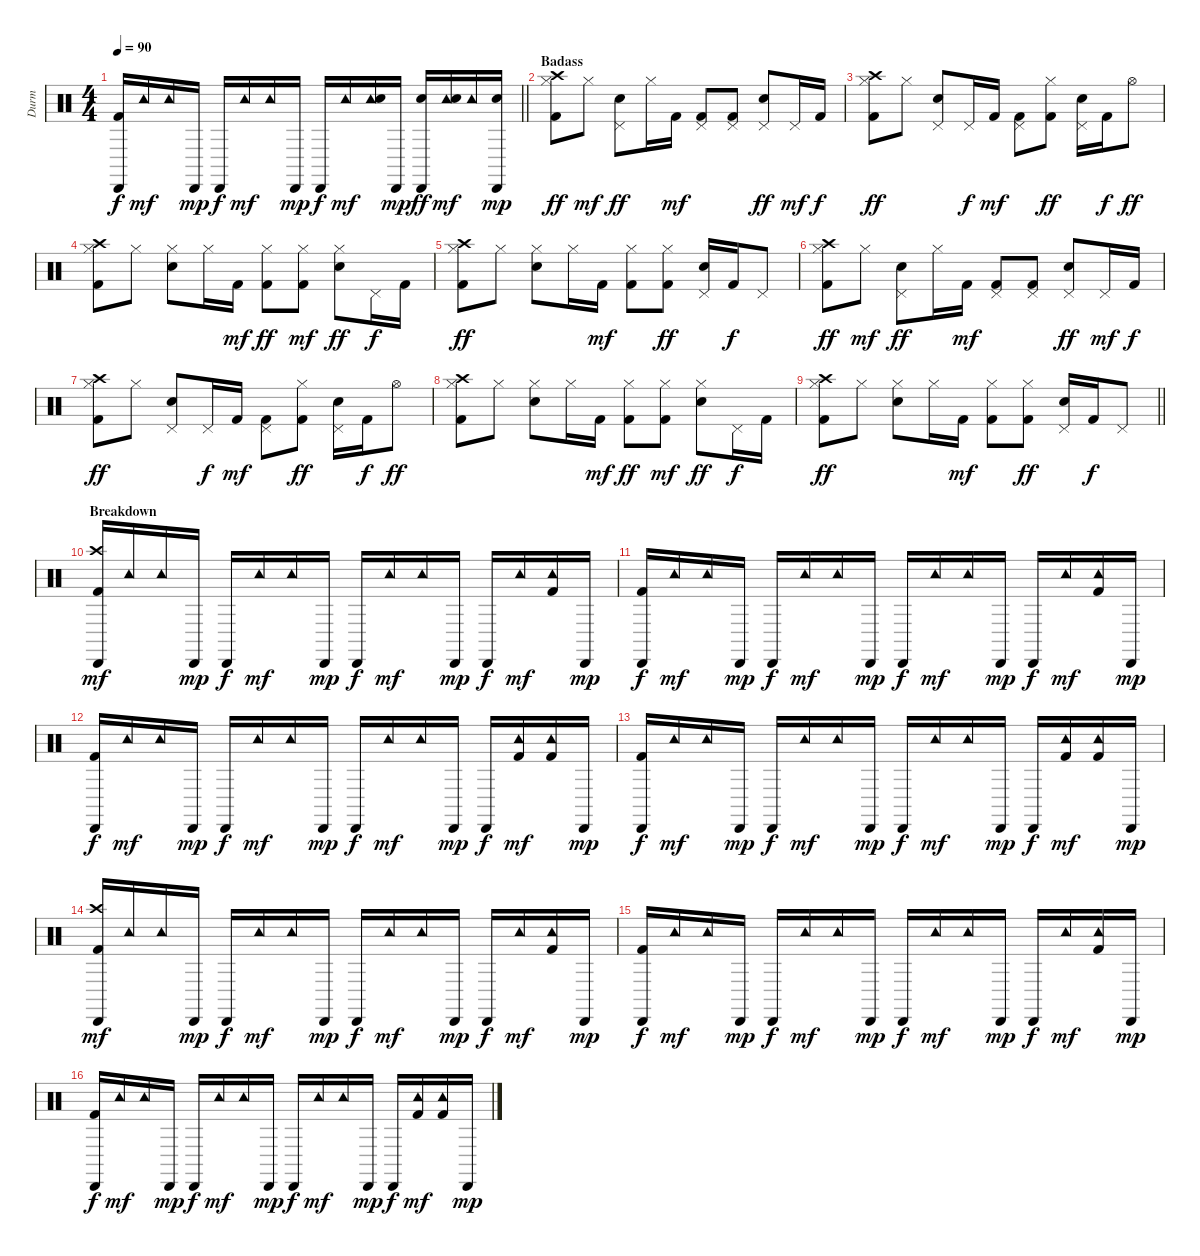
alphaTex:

\track ("Durm" "Durm") {instrument percussion}
\staff {score}
\articulation defaults
\ts (4 4)
\tempo 90
\clef neutral
\barLineRight lightlight
\ks c
("Cabasa (hit)" "Kick (hit) 2").16{dy f} "Tambourine (hit)".16{dy mf} "Tambourine (hit)".16 "Cabasa (hit)".16{dy mp} "Cabasa (hit)".16{dy f} "Tambourine (hit)".16{dy mf} "Tambourine (hit)".16 "Cabasa (hit)".16{dy mp} "Cabasa (hit)".16{dy f} "Tambourine (hit)".16{dy mf} ("Tambourine (hit)" "Electric Snare (hit)").16 "Cabasa (hit)".16{dy mp} ("Cabasa (hit)" "Electric Snare (hit)").16{dy ff} ("Tambourine (hit)" "Electric Snare (hit)").16{dy mf} "Tambourine (hit)".16 ("Cabasa (hit)" "Electric Snare (hit)").16{dy mp} |
\section ("" "Badass")
("Hi-Hat (closed)" "Crash high (hit)" "Kick (hit) 2").8{dy ff} "Hi-Hat (closed)".8{dy mf} ("Pedal Hi-Hat (hit)" "Electric Snare (hit)").8{dy ff} "Hi-Hat (closed)".16 "Kick (hit) 2".16{dy mf} ("Pedal Hi-Hat (hit)" "Kick (hit) 2").8 ("Pedal Hi-Hat (hit)" "Kick (hit) 2").8 ("Pedal Hi-Hat (hit)" "Electric Snare (hit)").8{dy ff} "Pedal Hi-Hat (hit)".16{dy mf} "Kick (hit) 2".16{dy f} |
("Hi-Hat (closed)" "Crash high (hit)" "Kick (hit) 2").8{dy ff} "Hi-Hat (closed)".8 ("Pedal Hi-Hat (hit)" "Electric Snare (hit)").8 "Pedal Hi-Hat (hit)".16{dy f} "Kick (hit) 2".16{dy mf} ("Pedal Hi-Hat (hit)" "Kick (hit) 2").8 ("Hi-Hat (closed)" "Kick (hit) 2").8{dy ff} ("Pedal Hi-Hat (hit)" "Electric Snare (hit)").16 "Kick (hit) 2".16{dy f} "Hi-Hat (open)".8{dy ff} |
("Hi-Hat (closed)" "Crash high (hit)" "Kick (hit) 2").8 "Hi-Hat (closed)".8 ("Hi-Hat (closed)" "Electric Snare (hit)").8 "Hi-Hat (closed)".16 "Kick (hit) 2".16{dy mf} ("Hi-Hat (closed)" "Kick (hit) 2").8{dy ff} ("Hi-Hat (closed)" "Kick (hit) 2").8{dy mf} ("Hi-Hat (closed)" "Electric Snare (hit)").8{dy ff} "Pedal Hi-Hat (hit)".16{dy f} "Kick (hit) 2".16 |
("Hi-Hat (closed)" "Crash high (hit)" "Kick (hit) 2").8{dy ff} "Hi-Hat (closed)".8 ("Hi-Hat (closed)" "Electric Snare (hit)").8 "Hi-Hat (closed)".16 "Kick (hit) 2".16{dy mf} ("Hi-Hat (closed)" "Kick (hit) 2").8 ("Hi-Hat (closed)" "Kick (hit) 2").8{dy ff} ("Pedal Hi-Hat (hit)" "Electric Snare (hit)").16 "Kick (hit) 2".16{dy f} "Pedal Hi-Hat (hit)".8 |
("Hi-Hat (closed)" "Crash high (hit)" "Kick (hit) 2").8{dy ff} "Hi-Hat (closed)".8{dy mf} ("Pedal Hi-Hat (hit)" "Electric Snare (hit)").8{dy ff} "Hi-Hat (closed)".16 "Kick (hit) 2".16{dy mf} ("Pedal Hi-Hat (hit)" "Kick (hit) 2").8 ("Pedal Hi-Hat (hit)" "Kick (hit) 2").8 ("Pedal Hi-Hat (hit)" "Electric Snare (hit)").8{dy ff} "Pedal Hi-Hat (hit)".16{dy mf} "Kick (hit) 2".16{dy f} |
("Hi-Hat (closed)" "Crash high (hit)" "Kick (hit) 2").8{dy ff} "Hi-Hat (closed)".8 ("Pedal Hi-Hat (hit)" "Electric Snare (hit)").8 "Pedal Hi-Hat (hit)".16{dy f} "Kick (hit) 2".16{dy mf} ("Pedal Hi-Hat (hit)" "Kick (hit) 2").8 ("Hi-Hat (closed)" "Kick (hit) 2").8{dy ff} ("Pedal Hi-Hat (hit)" "Electric Snare (hit)").16 "Kick (hit) 2".16{dy f} "Hi-Hat (open)".8{dy ff} |
("Hi-Hat (closed)" "Crash high (hit)" "Kick (hit) 2").8 "Hi-Hat (closed)".8 ("Hi-Hat (closed)" "Electric Snare (hit)").8 "Hi-Hat (closed)".16 "Kick (hit) 2".16{dy mf} ("Hi-Hat (closed)" "Kick (hit) 2").8{dy ff} ("Hi-Hat (closed)" "Kick (hit) 2").8{dy mf} ("Hi-Hat (closed)" "Electric Snare (hit)").8{dy ff} "Pedal Hi-Hat (hit)".16{dy f} "Kick (hit) 2".16 |
\barLineRight lightlight
("Hi-Hat (closed)" "Crash high (hit)" "Kick (hit) 2").8{dy ff} "Hi-Hat (closed)".8 ("Hi-Hat (closed)" "Electric Snare (hit)").8 "Hi-Hat (closed)".16 "Kick (hit) 2".16{dy mf} ("Hi-Hat (closed)" "Kick (hit) 2").8 ("Hi-Hat (closed)" "Kick (hit) 2").8{dy ff} ("Pedal Hi-Hat (hit)" "Electric Snare (hit)").16 "Kick (hit) 2".16{dy f} "Pedal Hi-Hat (hit)".8 |
\section ("" "Breakdown")
("Cabasa (hit)" "Crash high (hit)" "Kick (hit) 2").16{dy mf} "Tambourine (hit)".16 "Tambourine (hit)".16 "Cabasa (hit)".16{dy mp} "Cabasa (hit)".16{dy f} "Tambourine (hit)".16{dy mf} "Tambourine (hit)".16 "Cabasa (hit)".16{dy mp} "Cabasa (hit)".16{dy f} "Tambourine (hit)".16{dy mf} "Tambourine (hit)".16 "Cabasa (hit)".16{dy mp} "Cabasa (hit)".16{dy f} "Tambourine (hit)".16{dy mf} ("Tambourine (hit)" "Kick (hit) 2").16 "Cabasa (hit)".16{dy mp} |
("Cabasa (hit)" "Kick (hit) 2").16{dy f} "Tambourine (hit)".16{dy mf} "Tambourine (hit)".16 "Cabasa (hit)".16{dy mp} "Cabasa (hit)".16{dy f} "Tambourine (hit)".16{dy mf} "Tambourine (hit)".16 "Cabasa (hit)".16{dy mp} "Cabasa (hit)".16{dy f} "Tambourine (hit)".16{dy mf} "Tambourine (hit)".16 "Cabasa (hit)".16{dy mp} "Cabasa (hit)".16{dy f} "Tambourine (hit)".16{dy mf} ("Tambourine (hit)" "Kick (hit) 2").16 "Cabasa (hit)".16{dy mp} |
("Cabasa (hit)" "Kick (hit) 2").16{dy f} "Tambourine (hit)".16{dy mf} "Tambourine (hit)".16 "Cabasa (hit)".16{dy mp} "Cabasa (hit)".16{dy f} "Tambourine (hit)".16{dy mf} "Tambourine (hit)".16 "Cabasa (hit)".16{dy mp} "Cabasa (hit)".16{dy f} "Tambourine (hit)".16{dy mf} "Tambourine (hit)".16 "Cabasa (hit)".16{dy mp} "Cabasa (hit)".16{dy f} ("Tambourine (hit)" "Kick (hit) 2").16{dy mf} ("Tambourine (hit)" "Kick (hit) 2").16 "Cabasa (hit)".16{dy mp} |
("Cabasa (hit)" "Kick (hit) 2").16{dy f} "Tambourine (hit)".16{dy mf} "Tambourine (hit)".16 "Cabasa (hit)".16{dy mp} "Cabasa (hit)".16{dy f} "Tambourine (hit)".16{dy mf} "Tambourine (hit)".16 "Cabasa (hit)".16{dy mp} "Cabasa (hit)".16{dy f} "Tambourine (hit)".16{dy mf} "Tambourine (hit)".16 "Cabasa (hit)".16{dy mp} "Cabasa (hit)".16{dy f} ("Tambourine (hit)" "Kick (hit) 2").16{dy mf} ("Tambourine (hit)" "Kick (hit) 2").16 "Cabasa (hit)".16{dy mp} |
("Cabasa (hit)" "Crash high (hit)" "Kick (hit) 2").16{dy mf} "Tambourine (hit)".16 "Tambourine (hit)".16 "Cabasa (hit)".16{dy mp} "Cabasa (hit)".16{dy f} "Tambourine (hit)".16{dy mf} "Tambourine (hit)".16 "Cabasa (hit)".16{dy mp} "Cabasa (hit)".16{dy f} "Tambourine (hit)".16{dy mf} "Tambourine (hit)".16 "Cabasa (hit)".16{dy mp} "Cabasa (hit)".16{dy f} "Tambourine (hit)".16{dy mf} ("Tambourine (hit)" "Kick (hit) 2").16 "Cabasa (hit)".16{dy mp} |
("Cabasa (hit)" "Kick (hit) 2").16{dy f} "Tambourine (hit)".16{dy mf} "Tambourine (hit)".16 "Cabasa (hit)".16{dy mp} "Cabasa (hit)".16{dy f} "Tambourine (hit)".16{dy mf} "Tambourine (hit)".16 "Cabasa (hit)".16{dy mp} "Cabasa (hit)".16{dy f} "Tambourine (hit)".16{dy mf} "Tambourine (hit)".16 "Cabasa (hit)".16{dy mp} "Cabasa (hit)".16{dy f} "Tambourine (hit)".16{dy mf} ("Tambourine (hit)" "Kick (hit) 2").16 "Cabasa (hit)".16{dy mp} |
("Cabasa (hit)" "Kick (hit) 2").16{dy f} "Tambourine (hit)".16{dy mf} "Tambourine (hit)".16 "Cabasa (hit)".16{dy mp} "Cabasa (hit)".16{dy f} "Tambourine (hit)".16{dy mf} "Tambourine (hit)".16 "Cabasa (hit)".16{dy mp} "Cabasa (hit)".16{dy f} "Tambourine (hit)".16{dy mf} "Tambourine (hit)".16 "Cabasa (hit)".16{dy mp} "Cabasa (hit)".16{dy f} ("Tambourine (hit)" "Kick (hit) 2").16{dy mf} ("Tambourine (hit)" "Kick (hit) 2").16 "Cabasa (hit)".16{dy mp}
